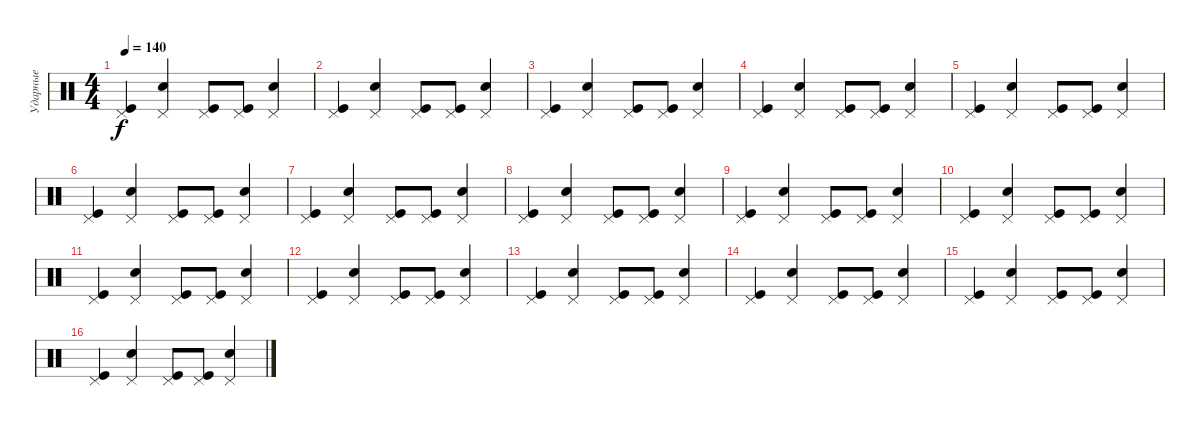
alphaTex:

\track ("Ударные" "Ударные") {instrument percussion}
\staff {score}
\articulation defaults
\ts (4 4)
\tempo 140
\clef neutral
\ks c
("Kick (hit)" "Pedal Hi-Hat (hit)").4{dy f} ("Electric Snare (hit)" "Pedal Hi-Hat (hit)").4 ("Kick (hit)" "Pedal Hi-Hat (hit)").8 ("Kick (hit)" "Pedal Hi-Hat (hit)").8 ("Electric Snare (hit)" "Pedal Hi-Hat (hit)").4 |
("Kick (hit)" "Pedal Hi-Hat (hit)").4 ("Electric Snare (hit)" "Pedal Hi-Hat (hit)").4 ("Kick (hit)" "Pedal Hi-Hat (hit)").8 ("Kick (hit)" "Pedal Hi-Hat (hit)").8 ("Electric Snare (hit)" "Pedal Hi-Hat (hit)").4 |
("Kick (hit)" "Pedal Hi-Hat (hit)").4 ("Electric Snare (hit)" "Pedal Hi-Hat (hit)").4 ("Kick (hit)" "Pedal Hi-Hat (hit)").8 ("Kick (hit)" "Pedal Hi-Hat (hit)").8 ("Electric Snare (hit)" "Pedal Hi-Hat (hit)").4 |
("Kick (hit)" "Pedal Hi-Hat (hit)").4 ("Electric Snare (hit)" "Pedal Hi-Hat (hit)").4 ("Kick (hit)" "Pedal Hi-Hat (hit)").8 ("Kick (hit)" "Pedal Hi-Hat (hit)").8 ("Electric Snare (hit)" "Pedal Hi-Hat (hit)").4 |
("Kick (hit)" "Pedal Hi-Hat (hit)").4 ("Electric Snare (hit)" "Pedal Hi-Hat (hit)").4 ("Kick (hit)" "Pedal Hi-Hat (hit)").8 ("Kick (hit)" "Pedal Hi-Hat (hit)").8 ("Electric Snare (hit)" "Pedal Hi-Hat (hit)").4 |
("Kick (hit)" "Pedal Hi-Hat (hit)").4 ("Electric Snare (hit)" "Pedal Hi-Hat (hit)").4 ("Kick (hit)" "Pedal Hi-Hat (hit)").8 ("Kick (hit)" "Pedal Hi-Hat (hit)").8 ("Electric Snare (hit)" "Pedal Hi-Hat (hit)").4 |
("Kick (hit)" "Pedal Hi-Hat (hit)").4 ("Electric Snare (hit)" "Pedal Hi-Hat (hit)").4 ("Kick (hit)" "Pedal Hi-Hat (hit)").8 ("Kick (hit)" "Pedal Hi-Hat (hit)").8 ("Electric Snare (hit)" "Pedal Hi-Hat (hit)").4 |
("Kick (hit)" "Pedal Hi-Hat (hit)").4 ("Electric Snare (hit)" "Pedal Hi-Hat (hit)").4 ("Kick (hit)" "Pedal Hi-Hat (hit)").8 ("Kick (hit)" "Pedal Hi-Hat (hit)").8 ("Electric Snare (hit)" "Pedal Hi-Hat (hit)").4 |
("Kick (hit)" "Pedal Hi-Hat (hit)").4 ("Electric Snare (hit)" "Pedal Hi-Hat (hit)").4 ("Kick (hit)" "Pedal Hi-Hat (hit)").8 ("Kick (hit)" "Pedal Hi-Hat (hit)").8 ("Electric Snare (hit)" "Pedal Hi-Hat (hit)").4 |
("Kick (hit)" "Pedal Hi-Hat (hit)").4 ("Electric Snare (hit)" "Pedal Hi-Hat (hit)").4 ("Kick (hit)" "Pedal Hi-Hat (hit)").8 ("Kick (hit)" "Pedal Hi-Hat (hit)").8 ("Electric Snare (hit)" "Pedal Hi-Hat (hit)").4 |
("Kick (hit)" "Pedal Hi-Hat (hit)").4 ("Electric Snare (hit)" "Pedal Hi-Hat (hit)").4 ("Kick (hit)" "Pedal Hi-Hat (hit)").8 ("Kick (hit)" "Pedal Hi-Hat (hit)").8 ("Electric Snare (hit)" "Pedal Hi-Hat (hit)").4 |
("Kick (hit)" "Pedal Hi-Hat (hit)").4 ("Electric Snare (hit)" "Pedal Hi-Hat (hit)").4 ("Kick (hit)" "Pedal Hi-Hat (hit)").8 ("Kick (hit)" "Pedal Hi-Hat (hit)").8 ("Electric Snare (hit)" "Pedal Hi-Hat (hit)").4 |
("Kick (hit)" "Pedal Hi-Hat (hit)").4 ("Electric Snare (hit)" "Pedal Hi-Hat (hit)").4 ("Kick (hit)" "Pedal Hi-Hat (hit)").8 ("Kick (hit)" "Pedal Hi-Hat (hit)").8 ("Electric Snare (hit)" "Pedal Hi-Hat (hit)").4 |
("Kick (hit)" "Pedal Hi-Hat (hit)").4 ("Electric Snare (hit)" "Pedal Hi-Hat (hit)").4 ("Kick (hit)" "Pedal Hi-Hat (hit)").8 ("Kick (hit)" "Pedal Hi-Hat (hit)").8 ("Electric Snare (hit)" "Pedal Hi-Hat (hit)").4 |
("Kick (hit)" "Pedal Hi-Hat (hit)").4 ("Electric Snare (hit)" "Pedal Hi-Hat (hit)").4 ("Kick (hit)" "Pedal Hi-Hat (hit)").8 ("Kick (hit)" "Pedal Hi-Hat (hit)").8 ("Electric Snare (hit)" "Pedal Hi-Hat (hit)").4 |
("Kick (hit)" "Pedal Hi-Hat (hit)").4 ("Electric Snare (hit)" "Pedal Hi-Hat (hit)").4 ("Kick (hit)" "Pedal Hi-Hat (hit)").8 ("Kick (hit)" "Pedal Hi-Hat (hit)").8 ("Electric Snare (hit)" "Pedal Hi-Hat (hit)").4
